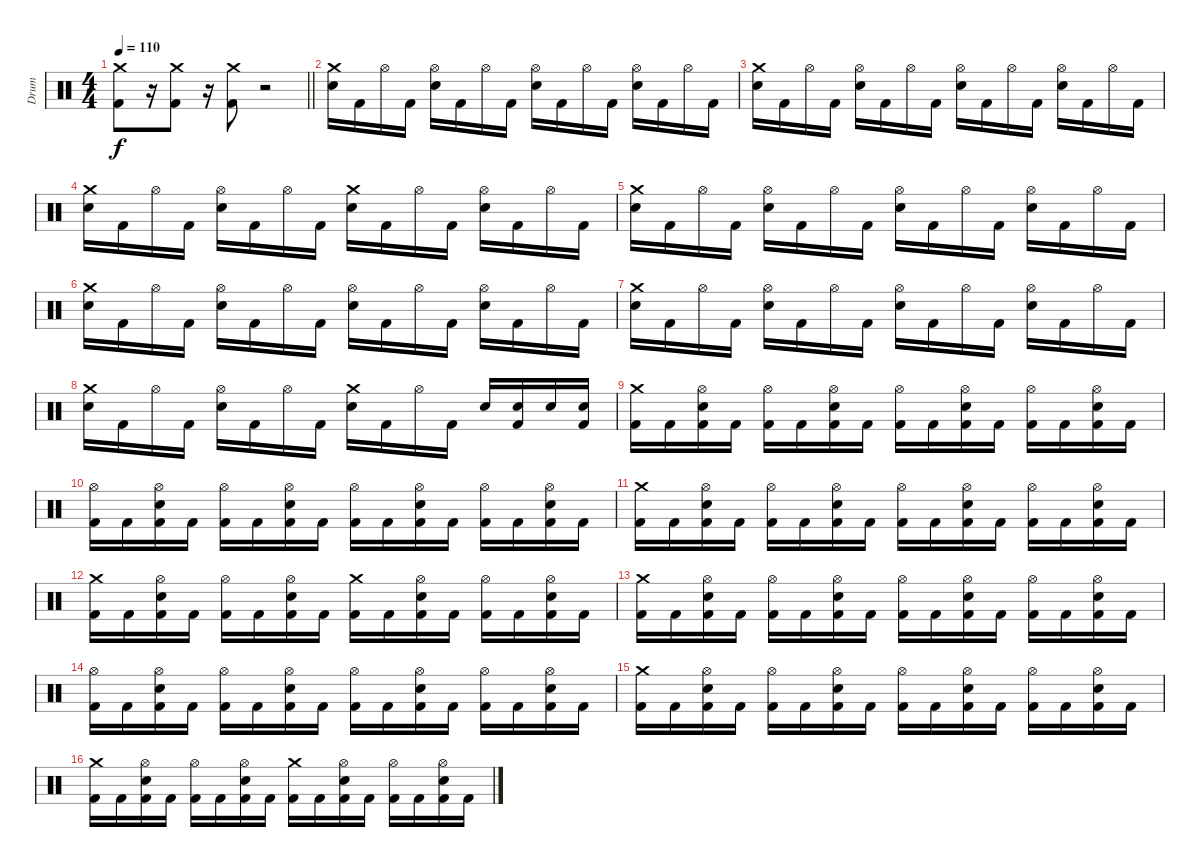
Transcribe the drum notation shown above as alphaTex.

\track ("Drum" "Drum") {instrument percussion}
\staff {score}
\articulation defaults
\ts (4 4)
\section ("" "")
\tempo 110
\clef neutral
\barLineRight lightlight
\ks c
("Crash medium (hit)" "Kick (hit) 2").8{dy f} r.16 ("Crash medium (hit)" "Kick (hit) 2").8 r.16 ("Crash medium (hit)" "Kick (hit) 2").8 r.2 |
("Crash medium (hit)" "Electric Snare (hit)").16 "Kick (hit) 2".16 "Hi-Hat (open)".16 "Kick (hit) 2".16 ("Hi-Hat (open)" "Electric Snare (hit)").16 "Kick (hit) 2".16 "Hi-Hat (open)".16 "Kick (hit) 2".16 ("Hi-Hat (open)" "Electric Snare (hit)").16 "Kick (hit) 2".16 "Hi-Hat (open)".16 "Kick (hit) 2".16 ("Hi-Hat (open)" "Electric Snare (hit)").16 "Kick (hit) 2".16 "Hi-Hat (open)".16 "Kick (hit) 2".16 |
("Crash medium (hit)" "Electric Snare (hit)").16 "Kick (hit) 2".16 "Hi-Hat (open)".16 "Kick (hit) 2".16 ("Hi-Hat (open)" "Electric Snare (hit)").16 "Kick (hit) 2".16 "Hi-Hat (open)".16 "Kick (hit) 2".16 ("Hi-Hat (open)" "Electric Snare (hit)").16 "Kick (hit) 2".16 "Hi-Hat (open)".16 "Kick (hit) 2".16 ("Hi-Hat (open)" "Electric Snare (hit)").16 "Kick (hit) 2".16 "Hi-Hat (open)".16 "Kick (hit) 2".16 |
("Crash medium (hit)" "Electric Snare (hit)").16 "Kick (hit) 2".16 "Hi-Hat (open)".16 "Kick (hit) 2".16 ("Hi-Hat (open)" "Electric Snare (hit)").16 "Kick (hit) 2".16 "Hi-Hat (open)".16 "Kick (hit) 2".16 ("Crash medium (hit)" "Electric Snare (hit)").16 "Kick (hit) 2".16 "Hi-Hat (open)".16 "Kick (hit) 2".16 ("Hi-Hat (open)" "Electric Snare (hit)").16 "Kick (hit) 2".16 "Hi-Hat (open)".16 "Kick (hit) 2".16 |
("Crash medium (hit)" "Electric Snare (hit)").16 "Kick (hit) 2".16 "Hi-Hat (open)".16 "Kick (hit) 2".16 ("Hi-Hat (open)" "Electric Snare (hit)").16 "Kick (hit) 2".16 "Hi-Hat (open)".16 "Kick (hit) 2".16 ("Hi-Hat (open)" "Electric Snare (hit)").16 "Kick (hit) 2".16 "Hi-Hat (open)".16 "Kick (hit) 2".16 ("Hi-Hat (open)" "Electric Snare (hit)").16 "Kick (hit) 2".16 "Hi-Hat (open)".16 "Kick (hit) 2".16 |
("Crash medium (hit)" "Electric Snare (hit)").16 "Kick (hit) 2".16 "Hi-Hat (open)".16 "Kick (hit) 2".16 ("Hi-Hat (open)" "Electric Snare (hit)").16 "Kick (hit) 2".16 "Hi-Hat (open)".16 "Kick (hit) 2".16 ("Hi-Hat (open)" "Electric Snare (hit)").16 "Kick (hit) 2".16 "Hi-Hat (open)".16 "Kick (hit) 2".16 ("Hi-Hat (open)" "Electric Snare (hit)").16 "Kick (hit) 2".16 "Hi-Hat (open)".16 "Kick (hit) 2".16 |
("Crash medium (hit)" "Electric Snare (hit)").16 "Kick (hit) 2".16 "Hi-Hat (open)".16 "Kick (hit) 2".16 ("Hi-Hat (open)" "Electric Snare (hit)").16 "Kick (hit) 2".16 "Hi-Hat (open)".16 "Kick (hit) 2".16 ("Hi-Hat (open)" "Electric Snare (hit)").16 "Kick (hit) 2".16 "Hi-Hat (open)".16 "Kick (hit) 2".16 ("Hi-Hat (open)" "Electric Snare (hit)").16 "Kick (hit) 2".16 "Hi-Hat (open)".16 "Kick (hit) 2".16 |
("Crash medium (hit)" "Electric Snare (hit)").16 "Kick (hit) 2".16 "Hi-Hat (open)".16 "Kick (hit) 2".16 ("Hi-Hat (open)" "Electric Snare (hit)").16 "Kick (hit) 2".16 "Hi-Hat (open)".16 "Kick (hit) 2".16 ("Crash medium (hit)" "Electric Snare (hit)").16 "Kick (hit) 2".16 "Hi-Hat (open)".16 "Kick (hit) 2".16 "Electric Snare (hit)".16 ("Electric Snare (hit)" "Kick (hit) 2").16 "Electric Snare (hit)".16 ("Electric Snare (hit)" "Kick (hit) 2").16 |
("Crash medium (hit)" "Kick (hit) 2").16 "Kick (hit) 2".16 ("Hi-Hat (open)" "Electric Snare (hit)" "Kick (hit) 2").16 "Kick (hit) 2".16 ("Hi-Hat (open)" "Kick (hit) 2").16 "Kick (hit) 2".16 ("Hi-Hat (open)" "Electric Snare (hit)" "Kick (hit) 2").16 "Kick (hit) 2".16 ("Hi-Hat (open)" "Kick (hit) 2").16 "Kick (hit) 2".16 ("Hi-Hat (open)" "Electric Snare (hit)" "Kick (hit) 2").16 "Kick (hit) 2".16 ("Hi-Hat (open)" "Kick (hit) 2").16 "Kick (hit) 2".16 ("Hi-Hat (open)" "Electric Snare (hit)" "Kick (hit) 2").16 "Kick (hit) 2".16 |
("Hi-Hat (open)" "Kick (hit) 2").16 "Kick (hit) 2".16 ("Hi-Hat (open)" "Electric Snare (hit)" "Kick (hit) 2").16 "Kick (hit) 2".16 ("Hi-Hat (open)" "Kick (hit) 2").16 "Kick (hit) 2".16 ("Hi-Hat (open)" "Electric Snare (hit)" "Kick (hit) 2").16 "Kick (hit) 2".16 ("Hi-Hat (open)" "Kick (hit) 2").16 "Kick (hit) 2".16 ("Hi-Hat (open)" "Electric Snare (hit)" "Kick (hit) 2").16 "Kick (hit) 2".16 ("Hi-Hat (open)" "Kick (hit) 2").16 "Kick (hit) 2".16 ("Hi-Hat (open)" "Electric Snare (hit)" "Kick (hit) 2").16 "Kick (hit) 2".16 |
("Crash medium (hit)" "Kick (hit) 2").16 "Kick (hit) 2".16 ("Hi-Hat (open)" "Electric Snare (hit)" "Kick (hit) 2").16 "Kick (hit) 2".16 ("Hi-Hat (open)" "Kick (hit) 2").16 "Kick (hit) 2".16 ("Hi-Hat (open)" "Electric Snare (hit)" "Kick (hit) 2").16 "Kick (hit) 2".16 ("Hi-Hat (open)" "Kick (hit) 2").16 "Kick (hit) 2".16 ("Hi-Hat (open)" "Electric Snare (hit)" "Kick (hit) 2").16 "Kick (hit) 2".16 ("Hi-Hat (open)" "Kick (hit) 2").16 "Kick (hit) 2".16 ("Hi-Hat (open)" "Electric Snare (hit)" "Kick (hit) 2").16 "Kick (hit) 2".16 |
("Crash medium (hit)" "Kick (hit) 2").16 "Kick (hit) 2".16 ("Hi-Hat (open)" "Electric Snare (hit)" "Kick (hit) 2").16 "Kick (hit) 2".16 ("Hi-Hat (open)" "Kick (hit) 2").16 "Kick (hit) 2".16 ("Hi-Hat (open)" "Electric Snare (hit)" "Kick (hit) 2").16 "Kick (hit) 2".16 ("Crash medium (hit)" "Kick (hit) 2").16 "Kick (hit) 2".16 ("Hi-Hat (open)" "Electric Snare (hit)" "Kick (hit) 2").16 "Kick (hit) 2".16 ("Hi-Hat (open)" "Kick (hit) 2").16 "Kick (hit) 2".16 ("Hi-Hat (open)" "Electric Snare (hit)" "Kick (hit) 2").16 "Kick (hit) 2".16 |
("Crash medium (hit)" "Kick (hit) 2").16 "Kick (hit) 2".16 ("Hi-Hat (open)" "Electric Snare (hit)" "Kick (hit) 2").16 "Kick (hit) 2".16 ("Hi-Hat (open)" "Kick (hit) 2").16 "Kick (hit) 2".16 ("Hi-Hat (open)" "Electric Snare (hit)" "Kick (hit) 2").16 "Kick (hit) 2".16 ("Hi-Hat (open)" "Kick (hit) 2").16 "Kick (hit) 2".16 ("Hi-Hat (open)" "Electric Snare (hit)" "Kick (hit) 2").16 "Kick (hit) 2".16 ("Hi-Hat (open)" "Kick (hit) 2").16 "Kick (hit) 2".16 ("Hi-Hat (open)" "Electric Snare (hit)" "Kick (hit) 2").16 "Kick (hit) 2".16 |
("Hi-Hat (open)" "Kick (hit) 2").16 "Kick (hit) 2".16 ("Hi-Hat (open)" "Electric Snare (hit)" "Kick (hit) 2").16 "Kick (hit) 2".16 ("Hi-Hat (open)" "Kick (hit) 2").16 "Kick (hit) 2".16 ("Hi-Hat (open)" "Electric Snare (hit)" "Kick (hit) 2").16 "Kick (hit) 2".16 ("Hi-Hat (open)" "Kick (hit) 2").16 "Kick (hit) 2".16 ("Hi-Hat (open)" "Electric Snare (hit)" "Kick (hit) 2").16 "Kick (hit) 2".16 ("Hi-Hat (open)" "Kick (hit) 2").16 "Kick (hit) 2".16 ("Hi-Hat (open)" "Electric Snare (hit)" "Kick (hit) 2").16 "Kick (hit) 2".16 |
("Crash medium (hit)" "Kick (hit) 2").16 "Kick (hit) 2".16 ("Hi-Hat (open)" "Electric Snare (hit)" "Kick (hit) 2").16 "Kick (hit) 2".16 ("Hi-Hat (open)" "Kick (hit) 2").16 "Kick (hit) 2".16 ("Hi-Hat (open)" "Electric Snare (hit)" "Kick (hit) 2").16 "Kick (hit) 2".16 ("Hi-Hat (open)" "Kick (hit) 2").16 "Kick (hit) 2".16 ("Hi-Hat (open)" "Electric Snare (hit)" "Kick (hit) 2").16 "Kick (hit) 2".16 ("Hi-Hat (open)" "Kick (hit) 2").16 "Kick (hit) 2".16 ("Hi-Hat (open)" "Electric Snare (hit)" "Kick (hit) 2").16 "Kick (hit) 2".16 |
("Crash medium (hit)" "Kick (hit) 2").16 "Kick (hit) 2".16 ("Hi-Hat (open)" "Electric Snare (hit)" "Kick (hit) 2").16 "Kick (hit) 2".16 ("Hi-Hat (open)" "Kick (hit) 2").16 "Kick (hit) 2".16 ("Hi-Hat (open)" "Electric Snare (hit)" "Kick (hit) 2").16 "Kick (hit) 2".16 ("Crash medium (hit)" "Kick (hit) 2").16 "Kick (hit) 2".16 ("Hi-Hat (open)" "Electric Snare (hit)" "Kick (hit) 2").16 "Kick (hit) 2".16 ("Hi-Hat (open)" "Kick (hit) 2").16 "Kick (hit) 2".16 ("Hi-Hat (open)" "Electric Snare (hit)" "Kick (hit) 2").16 "Kick (hit) 2".16
